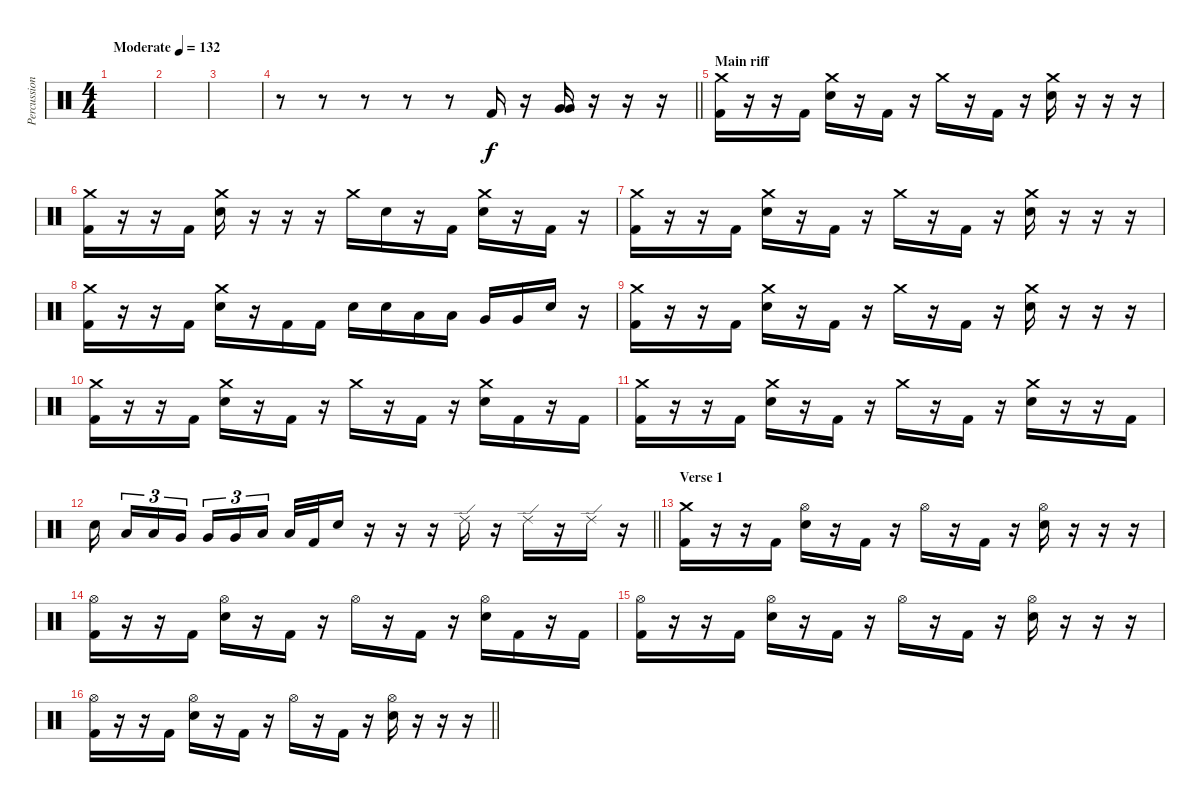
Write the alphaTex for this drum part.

\track ("Percussion" "Percussion") {instrument percussion}
\staff {score}
\articulation defaults
\ts (4 4)
\tempo (132 "Moderate")
\clef neutral
\ks c
|
|
|
\barLineRight lightlight
r.8 r.8 r.8 r.8 r.8 "Kick (hit) 2".16 r.16 ("Very Low Tom (hit)" "Very Low Tom (hit)").16 r.16 r.16 r.16 |
\section ("" "Main riff")
("Crash medium (hit)" "Kick (hit) 2").16 r.16 r.16 "Kick (hit) 2".16 ("Crash medium (hit)" "Electric Snare (hit)").16 r.16 "Kick (hit) 2".16 r.16 "Crash medium (hit)".16 r.16 "Kick (hit) 2".16 r.16 ("Crash medium (hit)" "Electric Snare (hit)").16 r.16 r.16 r.16 |
("Crash medium (hit)" "Kick (hit) 2").16 r.16 r.16 "Kick (hit) 2".16 ("Crash medium (hit)" "Electric Snare (hit)").16 r.16 r.16 r.16 "Crash medium (hit)".16 "Electric Snare (hit)".16 r.16 "Kick (hit) 2".16 ("Crash medium (hit)" "Electric Snare (hit)").16 r.16 "Kick (hit) 2".16 r.16 |
("Crash medium (hit)" "Kick (hit) 2").16 r.16 r.16 "Kick (hit) 2".16 ("Crash medium (hit)" "Electric Snare (hit)").16 r.16 "Kick (hit) 2".16 r.16 "Crash medium (hit)".16 r.16 "Kick (hit) 2".16 r.16 ("Crash medium (hit)" "Electric Snare (hit)").16 r.16 r.16 r.16 |
("Crash medium (hit)" "Kick (hit) 2").16 r.16 r.16 "Kick (hit) 2".16 ("Crash medium (hit)" "Electric Snare (hit)").16 r.16 "Kick (hit) 2".16 "Kick (hit) 2".16 "Electric Snare (hit)".16 "Electric Snare (hit)".16 "Low Tom (hit)".16 "Low Tom (hit)".16 "Very Low Tom (hit)".16 "Very Low Tom (hit)".16 "Electric Snare (hit)".16 r.16 |
("Crash medium (hit)" "Kick (hit) 2").16 r.16 r.16 "Kick (hit) 2".16 ("Crash medium (hit)" "Electric Snare (hit)").16 r.16 "Kick (hit) 2".16 r.16 "Crash medium (hit)".16 r.16 "Kick (hit) 2".16 r.16 ("Crash medium (hit)" "Electric Snare (hit)").16 r.16 r.16 r.16 |
("Crash medium (hit)" "Kick (hit) 2").16 r.16 r.16 "Kick (hit) 2".16 ("Crash medium (hit)" "Electric Snare (hit)").16 r.16 "Kick (hit) 2".16 r.16 "Crash medium (hit)".16 r.16 "Kick (hit) 2".16 r.16 ("Crash medium (hit)" "Electric Snare (hit)").16 "Kick (hit) 2".16 r.16 "Kick (hit) 2".16 |
("Crash medium (hit)" "Kick (hit) 2").16 r.16 r.16 "Kick (hit) 2".16 ("Crash medium (hit)" "Electric Snare (hit)").16 r.16 "Kick (hit) 2".16 r.16 "Crash medium (hit)".16 r.16 "Kick (hit) 2".16 r.16 ("Crash medium (hit)" "Electric Snare (hit)").16 r.16 r.16 "Kick (hit) 2".16 |
\barLineRight lightlight "Electric Snare (hit)".16{beam splitsecondary} "Low Tom (hit)".16{tu (3 2)} "Low Tom (hit)".16{tu (3 2)} "Very Low Tom (hit)".16{tu (3 2) beam splitsecondary} "Very Low Tom (hit)".16{tu (3 2)} "Very Low Tom (hit)".16{tu (3 2)} "Low Tom (hit)".16{tu (3 2) beam splitsecondary} "Low Tom (hit)".32 "Kick (hit) 2".32 "Electric Snare (hit)".16
r.16 r.16 r.16 "Ride (edge) 2".16 r.16 "Ride (edge) 2".16 r.16 "Ride (edge) 2".16 r.16 |
\section ("" "Verse 1")
("Crash medium (hit)" "Kick (hit) 2").16 r.16 r.16 "Kick (hit) 2".16 ("Hi-Hat (open)" "Electric Snare (hit)").16 r.16 "Kick (hit) 2".16 r.16 "Hi-Hat (open)".16 r.16 "Kick (hit) 2".16 r.16 ("Hi-Hat (open)" "Electric Snare (hit)").16 r.16 r.16 r.16 |
("Hi-Hat (open)" "Kick (hit) 2").16 r.16 r.16 "Kick (hit) 2".16 ("Hi-Hat (open)" "Electric Snare (hit)").16 r.16 "Kick (hit) 2".16 r.16 "Hi-Hat (open)".16 r.16 "Kick (hit) 2".16 r.16 ("Hi-Hat (open)" "Electric Snare (hit)").16 "Kick (hit) 2".16 r.16 "Kick (hit) 2".16 |
("Hi-Hat (open)" "Kick (hit) 2").16 r.16 r.16 "Kick (hit) 2".16 ("Hi-Hat (open)" "Electric Snare (hit)").16 r.16 "Kick (hit) 2".16 r.16 "Hi-Hat (open)".16 r.16 "Kick (hit) 2".16 r.16 ("Hi-Hat (open)" "Electric Snare (hit)").16 r.16 r.16 r.16 |
\barLineRight lightlight
("Hi-Hat (open)" "Kick (hit) 2").16 r.16 r.16 "Kick (hit) 2".16 ("Hi-Hat (open)" "Electric Snare (hit)").16 r.16 "Kick (hit) 2".16 r.16 "Hi-Hat (open)".16 r.16 "Kick (hit) 2".16 r.16 ("Hi-Hat (open)" "Electric Snare (hit)").16 r.16 r.16 r.16
